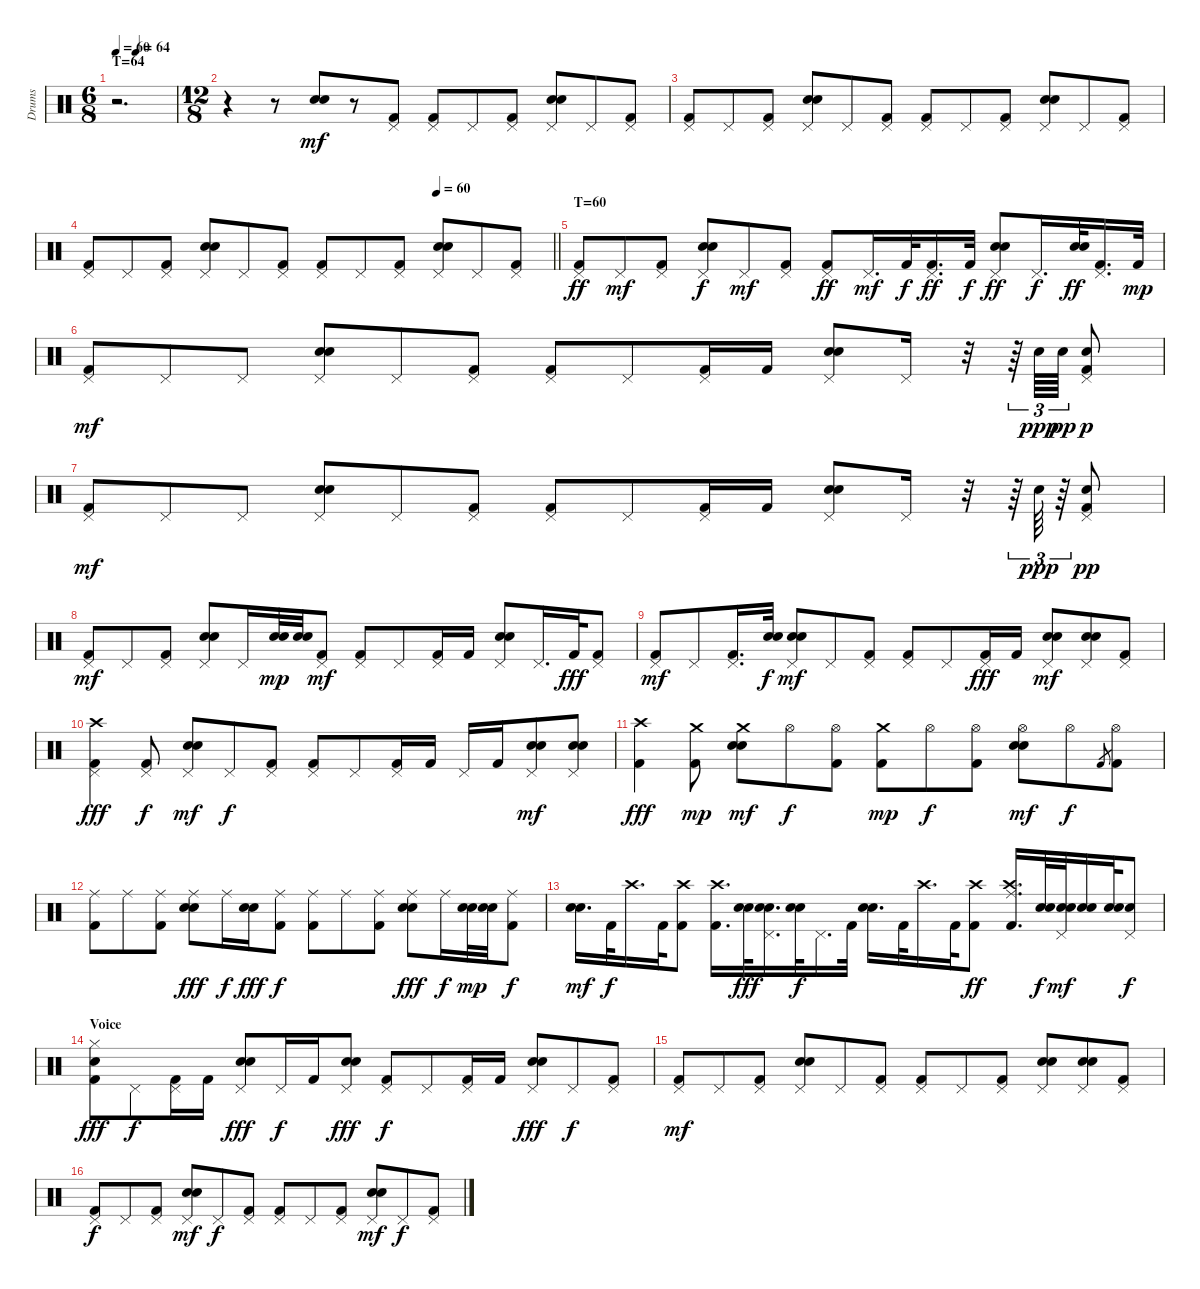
\track ("Drums" "Drums") {instrument percussion}
\staff {score}
\articulation defaults
\ts (6 8)
\section ("" "T=64")
\tempo 60
\tempo (64 0.3333333333333333)
\tempo 60
\clef neutral
\ks c
r.2{d dy mf} |
\ts (12 8)
r.4 r.8 ("Electric Snare (hit)" "Snare (hit) 2").8 r.8 ("Pedal Hi-Hat (hit)" "Kick (hit) 2").8 ("Pedal Hi-Hat (hit)" "Kick (hit) 2").8 "Pedal Hi-Hat (hit)".8 ("Pedal Hi-Hat (hit)" "Kick (hit) 2").8 ("Pedal Hi-Hat (hit)" "Electric Snare (hit)" "Snare (hit) 2").8 "Pedal Hi-Hat (hit)".8 ("Pedal Hi-Hat (hit)" "Kick (hit) 2").8 |
("Pedal Hi-Hat (hit)" "Kick (hit) 2").8 "Pedal Hi-Hat (hit)".8 ("Pedal Hi-Hat (hit)" "Kick (hit) 2").8 ("Pedal Hi-Hat (hit)" "Electric Snare (hit)" "Snare (hit) 2").8 "Pedal Hi-Hat (hit)".8 ("Pedal Hi-Hat (hit)" "Kick (hit) 2").8 ("Pedal Hi-Hat (hit)" "Kick (hit) 2").8 "Pedal Hi-Hat (hit)".8 ("Pedal Hi-Hat (hit)" "Kick (hit) 2").8 ("Pedal Hi-Hat (hit)" "Electric Snare (hit)" "Snare (hit) 2").8 "Pedal Hi-Hat (hit)".8 ("Pedal Hi-Hat (hit)" "Kick (hit) 2").8 |
\tempo (60 0.75)
\barLineRight lightlight
("Pedal Hi-Hat (hit)" "Kick (hit) 2").8 "Pedal Hi-Hat (hit)".8 ("Pedal Hi-Hat (hit)" "Kick (hit) 2").8 ("Pedal Hi-Hat (hit)" "Electric Snare (hit)" "Snare (hit) 2").8 "Pedal Hi-Hat (hit)".8 ("Pedal Hi-Hat (hit)" "Kick (hit) 2").8 ("Pedal Hi-Hat (hit)" "Kick (hit) 2").8 "Pedal Hi-Hat (hit)".8 ("Pedal Hi-Hat (hit)" "Kick (hit) 2").8 ("Pedal Hi-Hat (hit)" "Electric Snare (hit)" "Snare (hit) 2").8 "Pedal Hi-Hat (hit)".8 ("Pedal Hi-Hat (hit)" "Kick (hit) 2").8 |
\section ("" "T=60")
("Pedal Hi-Hat (hit)" "Kick (hit) 2").8{dy ff} "Pedal Hi-Hat (hit)".8{dy mf} ("Pedal Hi-Hat (hit)" "Kick (hit) 2").8 ("Pedal Hi-Hat (hit)" "Electric Snare (hit)" "Snare (hit) 2").8{dy f} "Pedal Hi-Hat (hit)".8{dy mf} ("Pedal Hi-Hat (hit)" "Kick (hit) 2").8 ("Pedal Hi-Hat (hit)" "Kick (hit) 2").8{dy ff} "Pedal Hi-Hat (hit)".16{d dy mf} "Kick (hit) 2".32{dy f} ("Pedal Hi-Hat (hit)" "Kick (hit) 2").16{d dy ff} "Kick (hit) 2".32{dy f} ("Pedal Hi-Hat (hit)" "Electric Snare (hit)" "Snare (hit) 2").8{dy ff} "Pedal Hi-Hat (hit)".16{d dy f} ("Electric Snare (hit)" "Snare (hit) 2").32{dy ff} ("Pedal Hi-Hat (hit)" "Kick (hit) 2").16{d} "Kick (hit) 2".32{dy mp} |
("Pedal Hi-Hat (hit)" "Kick (hit) 2").8{dy mf} "Pedal Hi-Hat (hit)".8 "Pedal Hi-Hat (hit)".8 ("Pedal Hi-Hat (hit)" "Electric Snare (hit)" "Snare (hit) 2").8 "Pedal Hi-Hat (hit)".8 ("Pedal Hi-Hat (hit)" "Kick (hit) 2").8 ("Pedal Hi-Hat (hit)" "Kick (hit) 2").8 "Pedal Hi-Hat (hit)".8 ("Pedal Hi-Hat (hit)" "Kick (hit) 2").16 "Kick (hit) 2".16 ("Pedal Hi-Hat (hit)" "Electric Snare (hit)" "Snare (hit) 2").8 "Pedal Hi-Hat (hit)".16 r.32 r.64{tu (3 2)} "Snare (hit) 2".64{tu (3 2) dy ppp} "Snare (hit) 2".64{tu (3 2) dy pp} ("Pedal Hi-Hat (hit)" "Kick (hit) 2" "Snare (hit) 2").8{dy p} |
("Pedal Hi-Hat (hit)" "Kick (hit) 2").8{dy mf} "Pedal Hi-Hat (hit)".8 "Pedal Hi-Hat (hit)".8 ("Pedal Hi-Hat (hit)" "Electric Snare (hit)" "Snare (hit) 2").8 "Pedal Hi-Hat (hit)".8 ("Pedal Hi-Hat (hit)" "Kick (hit) 2").8 ("Pedal Hi-Hat (hit)" "Kick (hit) 2").8 "Pedal Hi-Hat (hit)".8 ("Pedal Hi-Hat (hit)" "Kick (hit) 2").16 "Kick (hit) 2".16 ("Pedal Hi-Hat (hit)" "Electric Snare (hit)" "Snare (hit) 2").8 "Pedal Hi-Hat (hit)".16 r.32 r.64{tu (3 2)} "Snare (hit) 2".64{tu (3 2) dy ppp} r.64{tu (3 2)} ("Pedal Hi-Hat (hit)" "Kick (hit) 2" "Snare (hit) 2").8{dy pp} |
("Pedal Hi-Hat (hit)" "Kick (hit) 2").8{dy mf} "Pedal Hi-Hat (hit)".8 ("Pedal Hi-Hat (hit)" "Kick (hit) 2").8 ("Pedal Hi-Hat (hit)" "Electric Snare (hit)" "Snare (hit) 2").8 "Pedal Hi-Hat (hit)".16 ("Electric Snare (hit)" "Snare (hit) 2").32{dy mp} ("Electric Snare (hit)" "Snare (hit) 2").32 ("Pedal Hi-Hat (hit)" "Kick (hit) 2").8{dy mf} ("Pedal Hi-Hat (hit)" "Kick (hit) 2").8 "Pedal Hi-Hat (hit)".8 ("Pedal Hi-Hat (hit)" "Kick (hit) 2").16 "Kick (hit) 2".16 ("Pedal Hi-Hat (hit)" "Electric Snare (hit)" "Snare (hit) 2").8 "Pedal Hi-Hat (hit)".16{d} "Kick (hit) 2".32{dy fff} ("Pedal Hi-Hat (hit)" "Kick (hit) 2").8 |
("Pedal Hi-Hat (hit)" "Kick (hit) 2").8{dy mf} "Pedal Hi-Hat (hit)".8 ("Pedal Hi-Hat (hit)" "Kick (hit) 2").16{d} ("Electric Snare (hit)" "Snare (hit) 2").32{dy f} ("Pedal Hi-Hat (hit)" "Electric Snare (hit)" "Snare (hit) 2").8{dy mf} "Pedal Hi-Hat (hit)".8 ("Pedal Hi-Hat (hit)" "Kick (hit) 2").8 ("Pedal Hi-Hat (hit)" "Kick (hit) 2").8 "Pedal Hi-Hat (hit)".8 ("Pedal Hi-Hat (hit)" "Kick (hit) 2").16{dy fff} "Kick (hit) 2".16 ("Pedal Hi-Hat (hit)" "Electric Snare (hit)" "Snare (hit) 2").8{dy mf} ("Pedal Hi-Hat (hit)" "Electric Snare (hit)" "Snare (hit) 2").8 ("Pedal Hi-Hat (hit)" "Kick (hit) 2").8 |
("Crash high (hit)" "Pedal Hi-Hat (hit)" "Kick (hit) 2").4{dy fff} ("Pedal Hi-Hat (hit)" "Kick (hit) 2").8{dy f} ("Pedal Hi-Hat (hit)" "Electric Snare (hit)" "Snare (hit) 2").8{dy mf} "Pedal Hi-Hat (hit)".8{dy f} ("Pedal Hi-Hat (hit)" "Kick (hit) 2").8 ("Pedal Hi-Hat (hit)" "Kick (hit) 2").8 "Pedal Hi-Hat (hit)".8 ("Pedal Hi-Hat (hit)" "Kick (hit) 2").16 "Kick (hit) 2".16 "Pedal Hi-Hat (hit)".16 "Kick (hit) 2".16 ("Pedal Hi-Hat (hit)" "Electric Snare (hit)" "Snare (hit) 2").8{dy mf} ("Pedal Hi-Hat (hit)" "Electric Snare (hit)" "Snare (hit) 2").8 |
("Crash high (hit)" "Kick (hit) 2").4{dy fff} ("Crash medium (hit)" "Kick (hit) 2").8{dy mp} ("Crash medium (hit)" "Electric Snare (hit)" "Snare (hit) 2").8{dy mf} "Hi-Hat (open)".8{dy f} ("Hi-Hat (open)" "Kick (hit) 2").8 ("Crash medium (hit)" "Kick (hit) 2").8{dy mp} "Hi-Hat (open)".8{dy f} ("Hi-Hat (open)" "Kick (hit) 2").8 ("Hi-Hat (open)" "Electric Snare (hit)" "Snare (hit) 2").8{dy mf} "Hi-Hat (open)".8{dy f} "Kick (hit) 2".8{gr} ("Hi-Hat (open)" "Kick (hit) 2").8 |
("Ride (middle)" "Kick (hit) 2").8 "Ride (middle)".8 ("Ride (middle)" "Kick (hit) 2").8 ("Ride (middle)" "Electric Snare (hit)" "Snare (hit) 2").8{dy fff} "Ride (middle)".16{dy f} ("Electric Snare (hit)" "Snare (hit) 2").16{dy fff} ("Ride (middle)" "Kick (hit) 2").8{dy f} ("Ride (middle)" "Kick (hit) 2").8 "Ride (middle)".8 ("Ride (middle)" "Kick (hit) 2").8 ("Ride (middle)" "Electric Snare (hit)" "Snare (hit) 2").8{dy fff} "Ride (middle)".16{dy f} ("Electric Snare (hit)" "Snare (hit) 2").32{dy mp} ("Electric Snare (hit)" "Snare (hit) 2").32 ("Ride (middle)" "Kick (hit) 2").8{dy f} |
("Electric Snare (hit)" "Snare (hit) 2").16{d dy mf} "Kick (hit) 2".32{dy f} "Crash high (hit)".16{d} "Kick (hit) 2".32 ("Crash high (hit)" "Kick (hit) 2").8 ("Crash high (hit)" "Kick (hit) 2").16{d} ("Electric Snare (hit)" "Snare (hit) 2").32{dy fff} ("Pedal Hi-Hat (hit)" "Electric Snare (hit)" "Snare (hit) 2").16{d} ("Electric Snare (hit)" "Snare (hit) 2").32{dy f} "Pedal Hi-Hat (hit)".16{d} "Kick (hit) 2".32 ("Electric Snare (hit)" "Snare (hit) 2").16{d} "Kick (hit) 2".32 "Crash high (hit)".16{d} "Kick (hit) 2".32 ("Kick (hit) 2" "Crash high (hit)").8{dy ff} ("Ride (middle)" "Kick (hit) 2" "Crash high (hit)").16{d} ("Electric Snare (hit)" "Snare (hit) 2").32{dy f} ("Pedal Hi-Hat (hit)" "Electric Snare (hit)" "Snare (hit) 2").32{dy mf} ("Electric Snare (hit)" "Snare (hit) 2").16 ("Electric Snare (hit)" "Snare (hit) 2").32 ("Pedal Hi-Hat (hit)" "Electric Snare (hit)").8{dy f} |
\section ("" "Voice")
("Hi-Hat (closed)" "Snare (hit) 2" "Kick (hit) 2").8{dy fff} "Pedal Hi-Hat (hit)".8{dy f} ("Pedal Hi-Hat (hit)" "Kick (hit) 2").16 "Kick (hit) 2".16 ("Pedal Hi-Hat (hit)" "Electric Snare (hit)" "Snare (hit) 2").8{dy fff} "Pedal Hi-Hat (hit)".16{dy f} "Kick (hit) 2".16 ("Pedal Hi-Hat (hit)" "Electric Snare (hit)" "Snare (hit) 2").8{dy fff} ("Pedal Hi-Hat (hit)" "Kick (hit) 2").8{dy f} "Pedal Hi-Hat (hit)".8 ("Pedal Hi-Hat (hit)" "Kick (hit) 2").16 "Kick (hit) 2".16 ("Pedal Hi-Hat (hit)" "Electric Snare (hit)" "Snare (hit) 2").8{dy fff} "Pedal Hi-Hat (hit)".8{dy f} ("Pedal Hi-Hat (hit)" "Kick (hit) 2").8 |
("Pedal Hi-Hat (hit)" "Kick (hit) 2").8{dy mf} "Pedal Hi-Hat (hit)".8 ("Pedal Hi-Hat (hit)" "Kick (hit) 2").8 ("Pedal Hi-Hat (hit)" "Electric Snare (hit)" "Snare (hit) 2").8 "Pedal Hi-Hat (hit)".8 ("Pedal Hi-Hat (hit)" "Kick (hit) 2").8 ("Pedal Hi-Hat (hit)" "Kick (hit) 2").8 "Pedal Hi-Hat (hit)".8 ("Pedal Hi-Hat (hit)" "Kick (hit) 2").8 ("Pedal Hi-Hat (hit)" "Electric Snare (hit)" "Snare (hit) 2").8 ("Pedal Hi-Hat (hit)" "Electric Snare (hit)" "Snare (hit) 2").8 ("Pedal Hi-Hat (hit)" "Kick (hit) 2").8 |
("Pedal Hi-Hat (hit)" "Kick (hit) 2").8{dy f} "Pedal Hi-Hat (hit)".8 ("Pedal Hi-Hat (hit)" "Kick (hit) 2").8 ("Pedal Hi-Hat (hit)" "Electric Snare (hit)" "Snare (hit) 2").8{dy mf} "Pedal Hi-Hat (hit)".8{dy f} ("Pedal Hi-Hat (hit)" "Kick (hit) 2").8 ("Pedal Hi-Hat (hit)" "Kick (hit) 2").8 "Pedal Hi-Hat (hit)".8 ("Pedal Hi-Hat (hit)" "Kick (hit) 2").8 ("Pedal Hi-Hat (hit)" "Electric Snare (hit)" "Snare (hit) 2").8{dy mf} "Pedal Hi-Hat (hit)".8{dy f} ("Pedal Hi-Hat (hit)" "Kick (hit) 2").8
